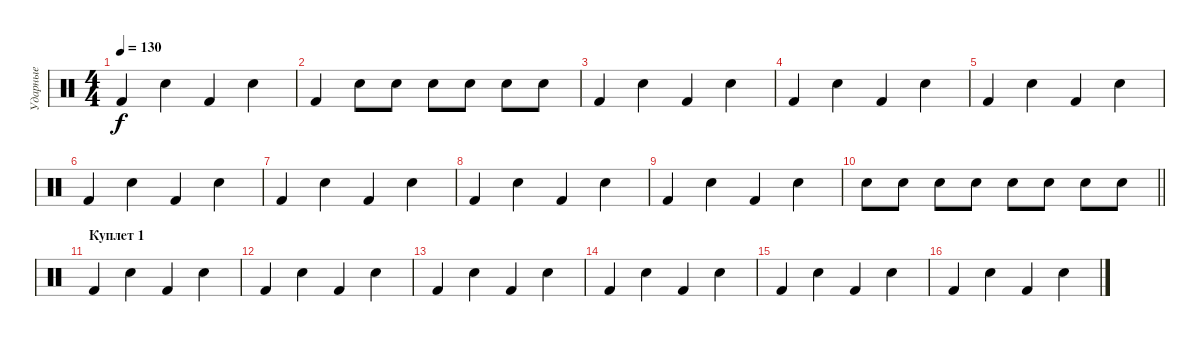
\track ("Ударные" "Ударные") {instrument percussion}
\staff {score}
\articulation defaults
\ts (4 4)
\tempo 130
\clef neutral
\ks c "Kick (hit) 2".4{dy f} "Electric Snare (hit)".4 "Kick (hit) 2".4 "Electric Snare (hit)".4
|
"Kick (hit) 2".4 "Electric Snare (hit)".8 "Electric Snare (hit)".8 "Electric Snare (hit)".8 "Electric Snare (hit)".8 "Electric Snare (hit)".8 "Electric Snare (hit)".8 |
"Kick (hit) 2".4 "Electric Snare (hit)".4 "Kick (hit) 2".4 "Electric Snare (hit)".4 |
"Kick (hit) 2".4 "Electric Snare (hit)".4 "Kick (hit) 2".4 "Electric Snare (hit)".4 |
"Kick (hit) 2".4 "Electric Snare (hit)".4 "Kick (hit) 2".4 "Electric Snare (hit)".4 |
"Kick (hit) 2".4 "Electric Snare (hit)".4 "Kick (hit) 2".4 "Electric Snare (hit)".4 |
"Kick (hit) 2".4 "Electric Snare (hit)".4 "Kick (hit) 2".4 "Electric Snare (hit)".4 |
"Kick (hit) 2".4 "Electric Snare (hit)".4 "Kick (hit) 2".4 "Electric Snare (hit)".4 |
"Kick (hit) 2".4 "Electric Snare (hit)".4 "Kick (hit) 2".4 "Electric Snare (hit)".4 |
\barLineRight lightlight "Electric Snare (hit)".8 "Electric Snare (hit)".8 "Electric Snare (hit)".8 "Electric Snare (hit)".8 "Electric Snare (hit)".8 "Electric Snare (hit)".8 "Electric Snare (hit)".8 "Electric Snare (hit)".8
|
\section ("" "Куплет 1")
"Kick (hit) 2".4 "Electric Snare (hit)".4 "Kick (hit) 2".4 "Electric Snare (hit)".4 |
"Kick (hit) 2".4 "Electric Snare (hit)".4 "Kick (hit) 2".4 "Electric Snare (hit)".4 |
"Kick (hit) 2".4 "Electric Snare (hit)".4 "Kick (hit) 2".4 "Electric Snare (hit)".4 |
"Kick (hit) 2".4 "Electric Snare (hit)".4 "Kick (hit) 2".4 "Electric Snare (hit)".4 |
"Kick (hit) 2".4 "Electric Snare (hit)".4 "Kick (hit) 2".4 "Electric Snare (hit)".4 |
"Kick (hit) 2".4 "Electric Snare (hit)".4 "Kick (hit) 2".4 "Electric Snare (hit)".4
